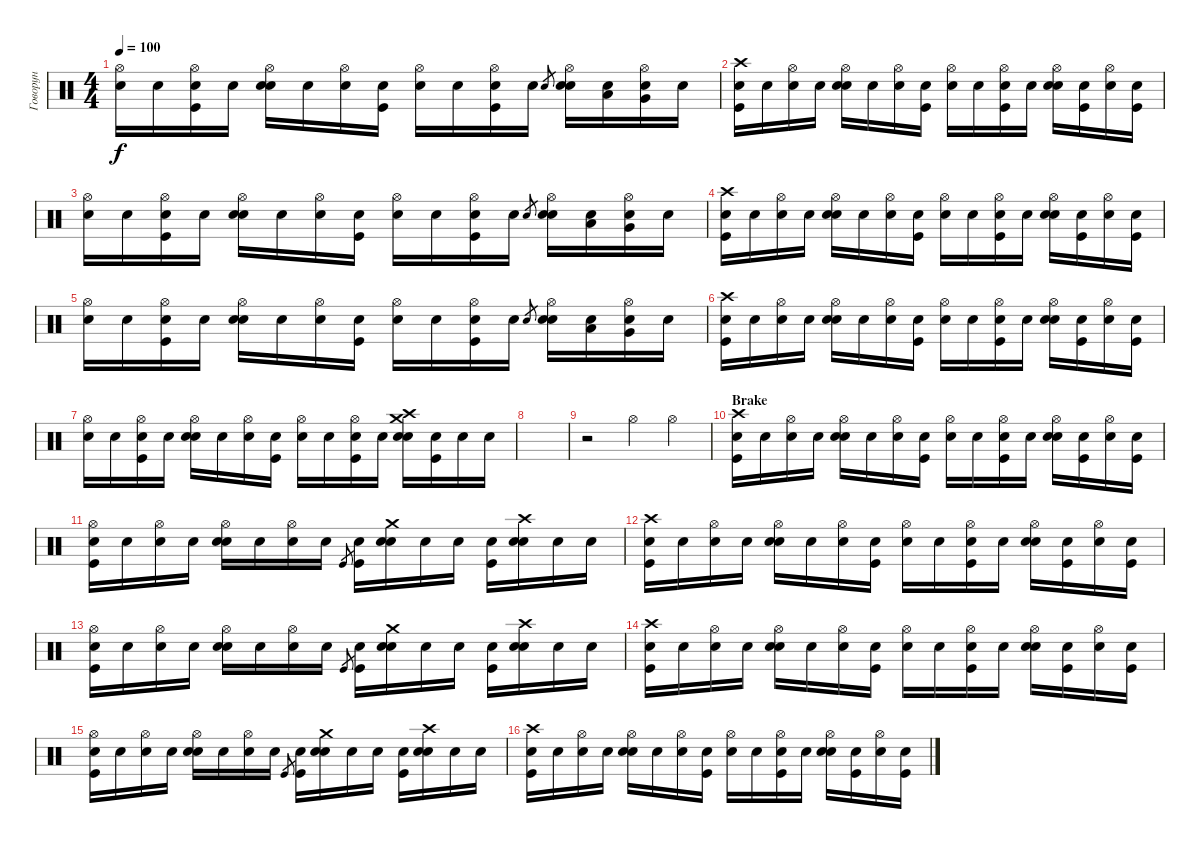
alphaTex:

\track ("Говорун" "Говорун") {instrument percussion}
\staff {score}
\articulation defaults
\ts (4 4)
\tempo 100
\clef neutral
\ks c
("Hi-Hat (open)" "Snare (hit)"{x}).16{dy f} "Snare (hit)"{x}.16 ("Kick (hit)" "Hi-Hat (open)" "Snare (hit)"{x}).16 "Snare (hit)"{x}.16 ("Snare (hit) 2" "Hi-Hat (open)" "Snare (hit)"{x}).16 "Snare (hit)"{x}.16 ("Hi-Hat (open)" "Snare (hit)"{x}).16 ("Kick (hit)" "Snare (hit)"{x}).16 ("Hi-Hat (open)" "Snare (hit)"{x}).16 "Snare (hit)"{x}.16 ("Kick (hit)" "Hi-Hat (open)" "Snare (hit)"{x}).16 "Snare (hit)"{x}.16 "Snare (hit) 2".8{gr} ("Snare (hit) 2" "Hi-Hat (open)" "Snare (hit)"{x}).16 ("Low Tom (hit)" "Snare (hit)"{x}).16 ("Very Low Tom (hit)" "Hi-Hat (open)" "Snare (hit)"{x}).16 "Snare (hit)"{x}.16 |
("Kick (hit)" "Crash high (hit)" "Snare (hit)"{x}).16 "Snare (hit)"{x}.16 ("Hi-Hat (open)" "Snare (hit)"{x}).16 "Snare (hit)"{x}.16 ("Snare (hit) 2" "Hi-Hat (open)" "Snare (hit)"{x}).16 "Snare (hit)"{x}.16 ("Hi-Hat (open)" "Snare (hit)"{x}).16 ("Kick (hit)" "Snare (hit)"{x}).16 ("Hi-Hat (open)" "Snare (hit)"{x}).16 "Snare (hit)"{x}.16 ("Kick (hit)" "Hi-Hat (open)" "Snare (hit)"{x}).16 "Snare (hit)"{x}.16 ("Snare (hit) 2" "Hi-Hat (open)" "Snare (hit)"{x}).16 ("Kick (hit)" "Snare (hit)"{x}).16 ("Hi-Hat (open)" "Snare (hit)"{x}).16 ("Kick (hit)" "Snare (hit)"{x}).16 |
("Hi-Hat (open)" "Snare (hit)"{x}).16 "Snare (hit)"{x}.16 ("Kick (hit)" "Hi-Hat (open)" "Snare (hit)"{x}).16 "Snare (hit)"{x}.16 ("Snare (hit) 2" "Hi-Hat (open)" "Snare (hit)"{x}).16 "Snare (hit)"{x}.16 ("Hi-Hat (open)" "Snare (hit)"{x}).16 ("Kick (hit)" "Snare (hit)"{x}).16 ("Hi-Hat (open)" "Snare (hit)"{x}).16 "Snare (hit)"{x}.16 ("Kick (hit)" "Hi-Hat (open)" "Snare (hit)"{x}).16 "Snare (hit)"{x}.16 "Snare (hit) 2".8{gr} ("Snare (hit) 2" "Hi-Hat (open)" "Snare (hit)"{x}).16 ("Low Tom (hit)" "Snare (hit)"{x}).16 ("Very Low Tom (hit)" "Hi-Hat (open)" "Snare (hit)"{x}).16 "Snare (hit)"{x}.16 |
("Kick (hit)" "Crash high (hit)" "Snare (hit)"{x}).16 "Snare (hit)"{x}.16 ("Hi-Hat (open)" "Snare (hit)"{x}).16 "Snare (hit)"{x}.16 ("Snare (hit) 2" "Hi-Hat (open)" "Snare (hit)"{x}).16 "Snare (hit)"{x}.16 ("Hi-Hat (open)" "Snare (hit)"{x}).16 ("Kick (hit)" "Snare (hit)"{x}).16 ("Hi-Hat (open)" "Snare (hit)"{x}).16 "Snare (hit)"{x}.16 ("Kick (hit)" "Hi-Hat (open)" "Snare (hit)"{x}).16 "Snare (hit)"{x}.16 ("Snare (hit) 2" "Hi-Hat (open)" "Snare (hit)"{x}).16 ("Kick (hit)" "Snare (hit)"{x}).16 ("Hi-Hat (open)" "Snare (hit)"{x}).16 ("Kick (hit)" "Snare (hit)"{x}).16 |
("Hi-Hat (open)" "Snare (hit)"{x}).16 "Snare (hit)"{x}.16 ("Kick (hit)" "Hi-Hat (open)" "Snare (hit)"{x}).16 "Snare (hit)"{x}.16 ("Snare (hit) 2" "Hi-Hat (open)" "Snare (hit)"{x}).16 "Snare (hit)"{x}.16 ("Hi-Hat (open)" "Snare (hit)"{x}).16 ("Kick (hit)" "Snare (hit)"{x}).16 ("Hi-Hat (open)" "Snare (hit)"{x}).16 "Snare (hit)"{x}.16 ("Kick (hit)" "Hi-Hat (open)" "Snare (hit)"{x}).16 "Snare (hit)"{x}.16 "Snare (hit) 2".8{gr} ("Snare (hit) 2" "Hi-Hat (open)" "Snare (hit)"{x}).16 ("Low Tom (hit)" "Snare (hit)"{x}).16 ("Very Low Tom (hit)" "Hi-Hat (open)" "Snare (hit)"{x}).16 "Snare (hit)"{x}.16 |
("Kick (hit)" "Crash high (hit)" "Snare (hit)"{x}).16 "Snare (hit)"{x}.16 ("Hi-Hat (open)" "Snare (hit)"{x}).16 "Snare (hit)"{x}.16 ("Snare (hit) 2" "Hi-Hat (open)" "Snare (hit)"{x}).16 "Snare (hit)"{x}.16 ("Hi-Hat (open)" "Snare (hit)"{x}).16 ("Kick (hit)" "Snare (hit)"{x}).16 ("Hi-Hat (open)" "Snare (hit)"{x}).16 "Snare (hit)"{x}.16 ("Kick (hit)" "Hi-Hat (open)" "Snare (hit)"{x}).16 "Snare (hit)"{x}.16 ("Snare (hit) 2" "Hi-Hat (open)" "Snare (hit)"{x}).16 ("Kick (hit)" "Snare (hit)"{x}).16 ("Hi-Hat (open)" "Snare (hit)"{x}).16 ("Kick (hit)" "Snare (hit)"{x}).16 |
("Hi-Hat (open)" "Snare (hit)"{x}).16 "Snare (hit)"{x}.16 ("Kick (hit)" "Hi-Hat (open)" "Snare (hit)"{x}).16 "Snare (hit)"{x}.16 ("Snare (hit) 2" "Hi-Hat (open)" "Snare (hit)"{x}).16 "Snare (hit)"{x}.16 ("Hi-Hat (open)" "Snare (hit)"{x}).16 ("Kick (hit)" "Snare (hit)"{x}).16 ("Hi-Hat (open)" "Snare (hit)"{x}).16 "Snare (hit)"{x}.16 ("Kick (hit)" "Hi-Hat (open)" "Snare (hit)"{x}).16 "Snare (hit)"{x}.16 ("Snare (hit) 2" "Crash medium (hit)" "Crash high (hit)" "Snare (hit)"{x}).16 ("Kick (hit)" "Snare (hit)"{x}).16 "Snare (hit)"{x}.16 "Snare (hit)"{x}.16 |
|
r.2 "Hi-Hat (open)".4 "Hi-Hat (open)".4 |
\section ("" "Brake")
("Kick (hit)" "Crash high (hit)" "Snare (hit)"{x}).16 "Snare (hit)"{x}.16 ("Hi-Hat (open)" "Snare (hit)"{x}).16 "Snare (hit)"{x}.16 ("Snare (hit) 2" "Hi-Hat (open)" "Snare (hit)"{x}).16 "Snare (hit)"{x}.16 ("Hi-Hat (open)" "Snare (hit)"{x}).16 ("Kick (hit)" "Snare (hit)"{x}).16 ("Hi-Hat (open)" "Snare (hit)"{x}).16 "Snare (hit)"{x}.16 ("Kick (hit)" "Hi-Hat (open)" "Snare (hit)"{x}).16 "Snare (hit)"{x}.16 ("Snare (hit) 2" "Hi-Hat (open)" "Snare (hit)"{x}).16 ("Kick (hit)" "Snare (hit)"{x}).16 ("Hi-Hat (open)" "Snare (hit)"{x}).16 ("Kick (hit)" "Snare (hit)"{x}).16 |
("Kick (hit)" "Hi-Hat (open)" "Snare (hit)"{x}).16 "Snare (hit)"{x}.16 ("Hi-Hat (open)" "Snare (hit)"{x}).16 "Snare (hit)"{x}.16 ("Snare (hit) 2" "Hi-Hat (open)" "Snare (hit)"{x}).16 "Snare (hit)"{x}.16 ("Hi-Hat (open)" "Snare (hit)"{x}).16 "Snare (hit)"{x}.16 "Kick (hit)".8{gr} ("Kick (hit)" "Snare (hit)"{x}).16 ("Crash medium (hit)" "Snare (hit) 2" "Snare (hit)"{x}).16 "Snare (hit)"{x}.16 "Snare (hit)"{x}.16 ("Kick (hit)" "Snare (hit)"{x}).16 ("Crash high (hit)" "Snare (hit) 2" "Snare (hit)"{x}).16 "Snare (hit)"{x}.16 "Snare (hit)"{x}.16 |
("Kick (hit)" "Crash high (hit)" "Snare (hit)"{x}).16 "Snare (hit)"{x}.16 ("Hi-Hat (open)" "Snare (hit)"{x}).16 "Snare (hit)"{x}.16 ("Snare (hit) 2" "Hi-Hat (open)" "Snare (hit)"{x}).16 "Snare (hit)"{x}.16 ("Hi-Hat (open)" "Snare (hit)"{x}).16 ("Kick (hit)" "Snare (hit)"{x}).16 ("Hi-Hat (open)" "Snare (hit)"{x}).16 "Snare (hit)"{x}.16 ("Kick (hit)" "Hi-Hat (open)" "Snare (hit)"{x}).16 "Snare (hit)"{x}.16 ("Snare (hit) 2" "Hi-Hat (open)" "Snare (hit)"{x}).16 ("Kick (hit)" "Snare (hit)"{x}).16 ("Hi-Hat (open)" "Snare (hit)"{x}).16 ("Kick (hit)" "Snare (hit)"{x}).16 |
("Kick (hit)" "Hi-Hat (open)" "Snare (hit)"{x}).16 "Snare (hit)"{x}.16 ("Hi-Hat (open)" "Snare (hit)"{x}).16 "Snare (hit)"{x}.16 ("Snare (hit) 2" "Hi-Hat (open)" "Snare (hit)"{x}).16 "Snare (hit)"{x}.16 ("Hi-Hat (open)" "Snare (hit)"{x}).16 "Snare (hit)"{x}.16 "Kick (hit)".8{gr} ("Kick (hit)" "Snare (hit)"{x}).16 ("Crash medium (hit)" "Snare (hit) 2" "Snare (hit)"{x}).16 "Snare (hit)"{x}.16 "Snare (hit)"{x}.16 ("Kick (hit)" "Snare (hit)"{x}).16 ("Crash high (hit)" "Snare (hit) 2" "Snare (hit)"{x}).16 "Snare (hit)"{x}.16 "Snare (hit)"{x}.16 |
("Kick (hit)" "Crash high (hit)" "Snare (hit)"{x}).16 "Snare (hit)"{x}.16 ("Hi-Hat (open)" "Snare (hit)"{x}).16 "Snare (hit)"{x}.16 ("Snare (hit) 2" "Hi-Hat (open)" "Snare (hit)"{x}).16 "Snare (hit)"{x}.16 ("Hi-Hat (open)" "Snare (hit)"{x}).16 ("Kick (hit)" "Snare (hit)"{x}).16 ("Hi-Hat (open)" "Snare (hit)"{x}).16 "Snare (hit)"{x}.16 ("Kick (hit)" "Hi-Hat (open)" "Snare (hit)"{x}).16 "Snare (hit)"{x}.16 ("Snare (hit) 2" "Hi-Hat (open)" "Snare (hit)"{x}).16 ("Kick (hit)" "Snare (hit)"{x}).16 ("Hi-Hat (open)" "Snare (hit)"{x}).16 ("Kick (hit)" "Snare (hit)"{x}).16 |
("Kick (hit)" "Hi-Hat (open)" "Snare (hit)"{x}).16 "Snare (hit)"{x}.16 ("Hi-Hat (open)" "Snare (hit)"{x}).16 "Snare (hit)"{x}.16 ("Snare (hit) 2" "Hi-Hat (open)" "Snare (hit)"{x}).16 "Snare (hit)"{x}.16 ("Hi-Hat (open)" "Snare (hit)"{x}).16 "Snare (hit)"{x}.16 "Kick (hit)".8{gr} ("Kick (hit)" "Snare (hit)"{x}).16 ("Crash medium (hit)" "Snare (hit) 2" "Snare (hit)"{x}).16 "Snare (hit)"{x}.16 "Snare (hit)"{x}.16 ("Kick (hit)" "Snare (hit)"{x}).16 ("Crash high (hit)" "Snare (hit) 2" "Snare (hit)"{x}).16 "Snare (hit)"{x}.16 "Snare (hit)"{x}.16 |
("Kick (hit)" "Crash high (hit)" "Snare (hit)"{x}).16 "Snare (hit)"{x}.16 ("Hi-Hat (open)" "Snare (hit)"{x}).16 "Snare (hit)"{x}.16 ("Snare (hit) 2" "Hi-Hat (open)" "Snare (hit)"{x}).16 "Snare (hit)"{x}.16 ("Hi-Hat (open)" "Snare (hit)"{x}).16 ("Kick (hit)" "Snare (hit)"{x}).16 ("Hi-Hat (open)" "Snare (hit)"{x}).16 "Snare (hit)"{x}.16 ("Kick (hit)" "Hi-Hat (open)" "Snare (hit)"{x}).16 "Snare (hit)"{x}.16 ("Snare (hit) 2" "Hi-Hat (open)" "Snare (hit)"{x}).16 ("Kick (hit)" "Snare (hit)"{x}).16 ("Hi-Hat (open)" "Snare (hit)"{x}).16 ("Kick (hit)" "Snare (hit)"{x}).16
